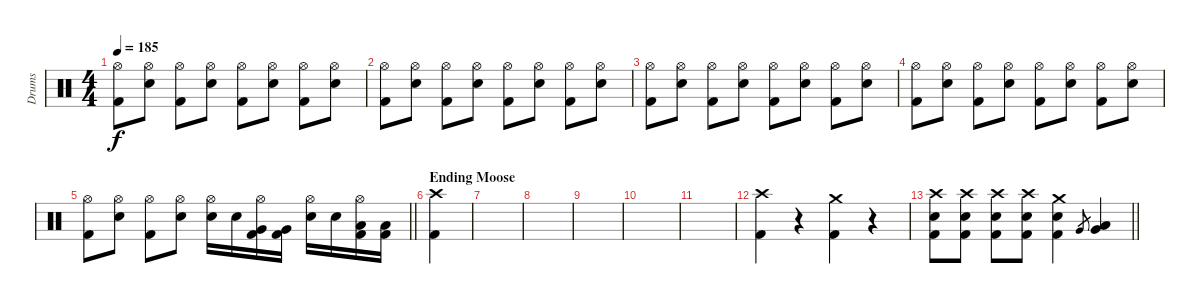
\track ("Drums" "Drums") {instrument percussion}
\staff {score}
\articulation defaults
\ts (4 4)
\tempo 185
\clef neutral
\ks c
("Hi-Hat (open)" "Kick (hit) 2").8{dy f} ("Hi-Hat (open)" "Snare (hit) 2").8 ("Hi-Hat (open)" "Kick (hit) 2").8 ("Hi-Hat (open)" "Snare (hit) 2").8 ("Hi-Hat (open)" "Kick (hit) 2").8 ("Hi-Hat (open)" "Snare (hit) 2").8 ("Hi-Hat (open)" "Kick (hit) 2").8 ("Hi-Hat (open)" "Snare (hit) 2").8 |
("Hi-Hat (open)" "Kick (hit) 2").8 ("Hi-Hat (open)" "Snare (hit) 2").8 ("Hi-Hat (open)" "Kick (hit) 2").8 ("Hi-Hat (open)" "Snare (hit) 2").8 ("Hi-Hat (open)" "Kick (hit) 2").8 ("Hi-Hat (open)" "Snare (hit) 2").8 ("Hi-Hat (open)" "Kick (hit) 2").8 ("Hi-Hat (open)" "Snare (hit) 2").8 |
("Hi-Hat (open)" "Kick (hit) 2").8 ("Hi-Hat (open)" "Snare (hit) 2").8 ("Hi-Hat (open)" "Kick (hit) 2").8 ("Hi-Hat (open)" "Snare (hit) 2").8 ("Hi-Hat (open)" "Kick (hit) 2").8 ("Hi-Hat (open)" "Snare (hit) 2").8 ("Hi-Hat (open)" "Kick (hit) 2").8 ("Hi-Hat (open)" "Snare (hit) 2").8 |
("Hi-Hat (open)" "Kick (hit) 2").8 ("Hi-Hat (open)" "Snare (hit) 2").8 ("Hi-Hat (open)" "Kick (hit) 2").8 ("Hi-Hat (open)" "Snare (hit) 2").8 ("Hi-Hat (open)" "Kick (hit) 2").8 ("Hi-Hat (open)" "Snare (hit) 2").8 ("Hi-Hat (open)" "Kick (hit) 2").8 ("Hi-Hat (open)" "Snare (hit) 2").8 |
\barLineRight lightlight
("Hi-Hat (open)" "Kick (hit) 2").8 ("Hi-Hat (open)" "Snare (hit) 2").8 ("Hi-Hat (open)" "Kick (hit) 2").8 ("Hi-Hat (open)" "Snare (hit) 2").8 ("Hi-Hat (open)" "Snare (hit) 2").16 "Snare (hit) 2".16 ("Hi-Hat (open)" "Very Low Tom (hit)" "Kick (hit) 2").16 ("Very Low Tom (hit)" "Kick (hit) 2").16 ("Hi-Hat (open)" "Snare (hit) 2").16 "Snare (hit) 2".16 ("Hi-Hat (open)" "Low Floor Tom (hit)" "Kick (hit) 2").16 ("Low Floor Tom (hit)" "Kick (hit) 2").16 |
\section ("" "Ending Moose")
("Crash high (hit)" "Kick (hit) 2").4 |
|
|
|
|
|
("Crash high (hit)" "Kick (hit) 2").4 r.4 ("Crash medium (hit)" "Kick (hit) 2").4 r.4 |
\barLineRight lightlight
("Crash high (hit)" "Snare (hit) 2" "Kick (hit) 2").8 ("Crash high (hit)" "Snare (hit) 2" "Kick (hit) 2").8 ("Crash high (hit)" "Snare (hit) 2" "Kick (hit) 2").8 ("Crash high (hit)" "Snare (hit) 2" "Kick (hit) 2").8 ("Crash medium (hit)" "Snare (hit) 2" "Kick (hit) 2").4 "Very Low Tom (hit)".8{gr} ("Very Low Tom (hit)" "Low Floor Tom (hit)").4
